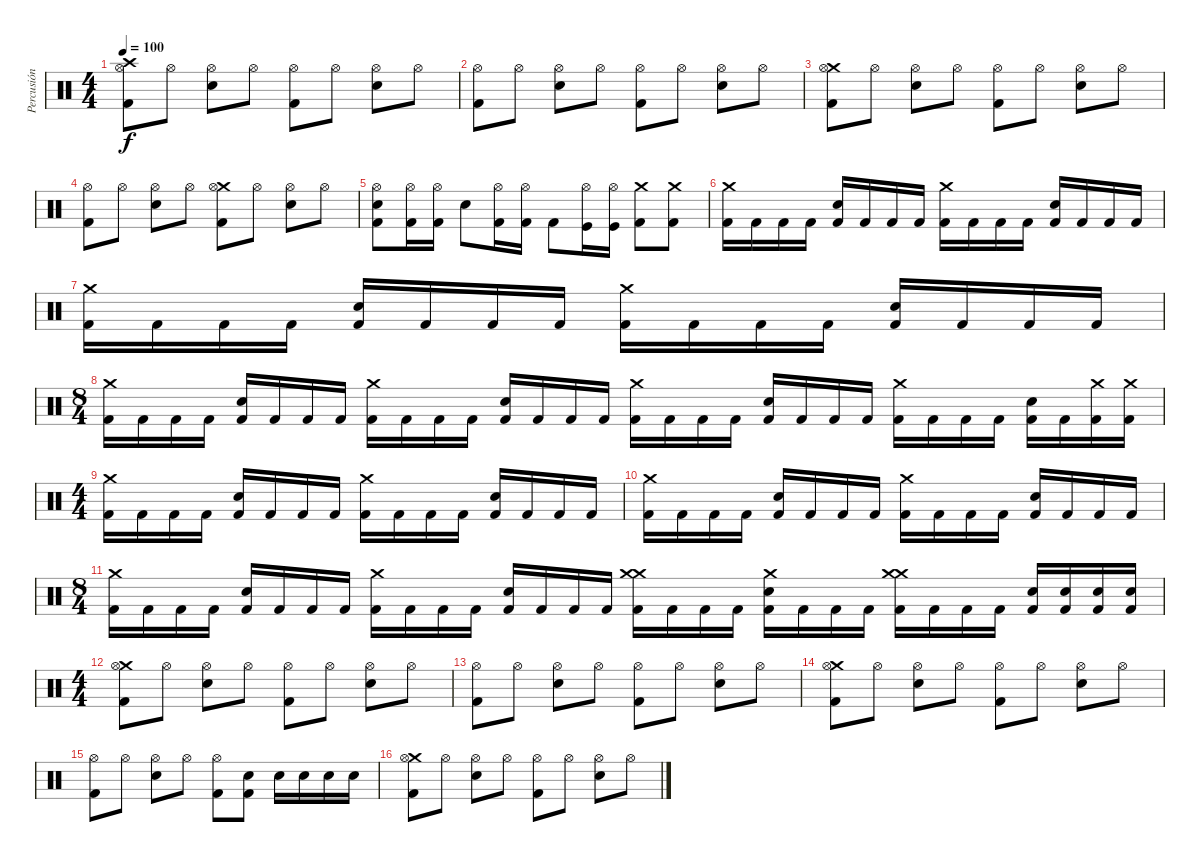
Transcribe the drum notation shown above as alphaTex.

\track ("Percusión" "Percusión") {instrument percussion}
\staff {score}
\articulation defaults
\ts (4 4)
\tempo 100
\clef neutral
\ks c
("Crash high (hit)" "Hi-Hat (open)" "Kick (hit) 2").8{dy f} "Hi-Hat (open)".8 ("Hi-Hat (open)" "Snare (hit) 2").8 "Hi-Hat (open)".8 ("Hi-Hat (open)" "Kick (hit) 2").8 "Hi-Hat (open)".8 ("Hi-Hat (open)" "Snare (hit) 2").8 "Hi-Hat (open)".8 |
("Hi-Hat (open)" "Kick (hit) 2").8 "Hi-Hat (open)".8 ("Hi-Hat (open)" "Snare (hit) 2").8 "Hi-Hat (open)".8 ("Hi-Hat (open)" "Kick (hit) 2").8 "Hi-Hat (open)".8 ("Hi-Hat (open)" "Snare (hit) 2").8 "Hi-Hat (open)".8 |
("Crash medium (hit)" "Hi-Hat (open)" "Kick (hit) 2").8 "Hi-Hat (open)".8 ("Hi-Hat (open)" "Snare (hit) 2").8 "Hi-Hat (open)".8 ("Hi-Hat (open)" "Kick (hit) 2").8 "Hi-Hat (open)".8 ("Hi-Hat (open)" "Snare (hit) 2").8 "Hi-Hat (open)".8 |
("Hi-Hat (open)" "Kick (hit) 2").8 "Hi-Hat (open)".8 ("Hi-Hat (open)" "Snare (hit) 2").8 "Hi-Hat (open)".8 ("Crash medium (hit)" "Hi-Hat (open)" "Kick (hit) 2").8 "Hi-Hat (open)".8 ("Hi-Hat (open)" "Snare (hit) 2").8 "Hi-Hat (open)".8 |
("Hi-Hat (open)" "Kick (hit) 2" "Snare (hit) 2").8 ("Kick (hit) 2" "Hi-Hat (open)").16 ("Kick (hit) 2" "Hi-Hat (open)").16 "Snare (hit) 2".8 ("Kick (hit) 2" "Hi-Hat (open)").16 ("Kick (hit) 2" "Hi-Hat (open)").16 "Kick (hit) 2".8 ("Kick (hit)" "Hi-Hat (open)").16 ("Kick (hit)" "Hi-Hat (open)").16 ("Kick (hit) 2" "Crash medium (hit)").8 ("Kick (hit) 2" "Crash medium (hit)").8 |
("Kick (hit) 2" "Crash medium (hit)").16 "Kick (hit) 2".16 "Kick (hit) 2".16 "Kick (hit) 2".16 ("Kick (hit) 2" "Snare (hit) 2").16 "Kick (hit) 2".16 "Kick (hit) 2".16 "Kick (hit) 2".16 ("Kick (hit) 2" "Crash medium (hit)").16 "Kick (hit) 2".16 "Kick (hit) 2".16 "Kick (hit) 2".16 ("Kick (hit) 2" "Snare (hit) 2").16 "Kick (hit) 2".16 "Kick (hit) 2".16 "Kick (hit) 2".16 |
("Kick (hit) 2" "Crash medium (hit)").16 "Kick (hit) 2".16 "Kick (hit) 2".16 "Kick (hit) 2".16 ("Kick (hit) 2" "Snare (hit) 2").16 "Kick (hit) 2".16 "Kick (hit) 2".16 "Kick (hit) 2".16 ("Kick (hit) 2" "Crash medium (hit)").16 "Kick (hit) 2".16 "Kick (hit) 2".16 "Kick (hit) 2".16 ("Kick (hit) 2" "Snare (hit) 2").16 "Kick (hit) 2".16 "Kick (hit) 2".16 "Kick (hit) 2".16 |
\ts (8 4)
("Kick (hit) 2" "Crash medium (hit)").16 "Kick (hit) 2".16 "Kick (hit) 2".16 "Kick (hit) 2".16 ("Kick (hit) 2" "Snare (hit) 2").16 "Kick (hit) 2".16 "Kick (hit) 2".16 "Kick (hit) 2".16 ("Kick (hit) 2" "Crash medium (hit)").16 "Kick (hit) 2".16 "Kick (hit) 2".16 "Kick (hit) 2".16 ("Kick (hit) 2" "Snare (hit) 2").16 "Kick (hit) 2".16 "Kick (hit) 2".16 "Kick (hit) 2".16 ("Kick (hit) 2" "Crash medium (hit)").16 "Kick (hit) 2".16 "Kick (hit) 2".16 "Kick (hit) 2".16 ("Kick (hit) 2" "Snare (hit) 2").16 "Kick (hit) 2".16 "Kick (hit) 2".16 "Kick (hit) 2".16 ("Kick (hit) 2" "Crash medium (hit)").16 "Kick (hit) 2".16 "Kick (hit) 2".16 "Kick (hit) 2".16 ("Kick (hit) 2" "Snare (hit) 2").16 "Kick (hit) 2".16 ("Crash medium (hit)" "Kick (hit) 2").16 ("Crash medium (hit)" "Kick (hit) 2").16 |
\ts (4 4)
("Kick (hit) 2" "Crash medium (hit)").16 "Kick (hit) 2".16 "Kick (hit) 2".16 "Kick (hit) 2".16 ("Kick (hit) 2" "Snare (hit) 2").16 "Kick (hit) 2".16 "Kick (hit) 2".16 "Kick (hit) 2".16 ("Kick (hit) 2" "Crash medium (hit)").16 "Kick (hit) 2".16 "Kick (hit) 2".16 "Kick (hit) 2".16 ("Kick (hit) 2" "Snare (hit) 2").16 "Kick (hit) 2".16 "Kick (hit) 2".16 "Kick (hit) 2".16 |
("Kick (hit) 2" "Crash medium (hit)").16 "Kick (hit) 2".16 "Kick (hit) 2".16 "Kick (hit) 2".16 ("Kick (hit) 2" "Snare (hit) 2").16 "Kick (hit) 2".16 "Kick (hit) 2".16 "Kick (hit) 2".16 ("Kick (hit) 2" "Crash medium (hit)").16 "Kick (hit) 2".16 "Kick (hit) 2".16 "Kick (hit) 2".16 ("Kick (hit) 2" "Snare (hit) 2").16 "Kick (hit) 2".16 "Kick (hit) 2".16 "Kick (hit) 2".16 |
\ts (8 4)
("Kick (hit) 2" "Crash medium (hit)").16 "Kick (hit) 2".16 "Kick (hit) 2".16 "Kick (hit) 2".16 ("Kick (hit) 2" "Snare (hit) 2").16 "Kick (hit) 2".16 "Kick (hit) 2".16 "Kick (hit) 2".16 ("Kick (hit) 2" "Crash medium (hit)").16 "Kick (hit) 2".16 "Kick (hit) 2".16 "Kick (hit) 2".16 ("Kick (hit) 2" "Snare (hit) 2").16 "Kick (hit) 2".16 "Kick (hit) 2".16 "Kick (hit) 2".16 ("Crash medium (hit)" "Kick (hit) 2" "Crash medium (hit)").16 "Kick (hit) 2".16 "Kick (hit) 2".16 "Kick (hit) 2".16 ("Crash medium (hit)" "Kick (hit) 2" "Snare (hit) 2").16 "Kick (hit) 2".16 "Kick (hit) 2".16 "Kick (hit) 2".16 ("Crash medium (hit)" "Kick (hit) 2" "Crash medium (hit)").16 "Kick (hit) 2".16 "Kick (hit) 2".16 "Kick (hit) 2".16 ("Kick (hit) 2" "Snare (hit) 2").16 ("Kick (hit) 2" "Snare (hit) 2").16 ("Kick (hit) 2" "Snare (hit) 2").16 ("Kick (hit) 2" "Snare (hit) 2").16 |
\ts (4 4)
("Crash medium (hit)" "Hi-Hat (open)" "Kick (hit) 2").8 "Hi-Hat (open)".8 ("Hi-Hat (open)" "Snare (hit) 2").8 "Hi-Hat (open)".8 ("Hi-Hat (open)" "Kick (hit) 2").8 "Hi-Hat (open)".8 ("Hi-Hat (open)" "Snare (hit) 2").8 "Hi-Hat (open)".8 |
("Hi-Hat (open)" "Kick (hit) 2").8 "Hi-Hat (open)".8 ("Hi-Hat (open)" "Snare (hit) 2").8 "Hi-Hat (open)".8 ("Hi-Hat (open)" "Kick (hit) 2").8 "Hi-Hat (open)".8 ("Hi-Hat (open)" "Snare (hit) 2").8 "Hi-Hat (open)".8 |
("Crash medium (hit)" "Hi-Hat (open)" "Kick (hit) 2").8 "Hi-Hat (open)".8 ("Hi-Hat (open)" "Snare (hit) 2").8 "Hi-Hat (open)".8 ("Hi-Hat (open)" "Kick (hit) 2").8 "Hi-Hat (open)".8 ("Hi-Hat (open)" "Snare (hit) 2").8 "Hi-Hat (open)".8 |
("Hi-Hat (open)" "Kick (hit) 2").8 "Hi-Hat (open)".8 ("Hi-Hat (open)" "Snare (hit) 2").8 "Hi-Hat (open)".8 ("Hi-Hat (open)" "Kick (hit) 2").8 ("Snare (hit) 2" "Kick (hit) 2").8 "Snare (hit) 2".16 "Snare (hit) 2".16 "Snare (hit) 2".16 "Snare (hit) 2".16 |
("Crash medium (hit)" "Hi-Hat (open)" "Kick (hit) 2").8 "Hi-Hat (open)".8 ("Hi-Hat (open)" "Snare (hit) 2").8 "Hi-Hat (open)".8 ("Hi-Hat (open)" "Kick (hit) 2").8 "Hi-Hat (open)".8 ("Hi-Hat (open)" "Snare (hit) 2").8 "Hi-Hat (open)".8
